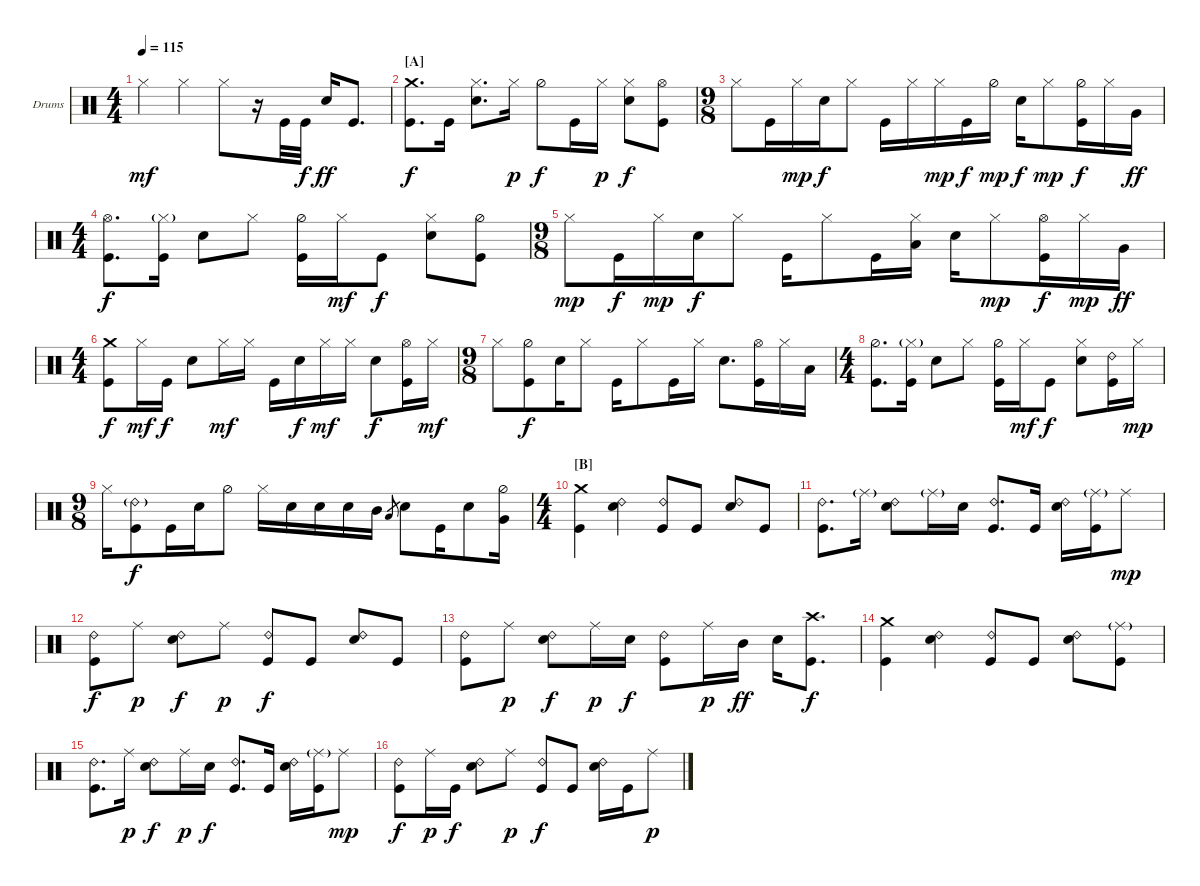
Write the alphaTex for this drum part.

\defaultSystemsLayout 4
\bracketExtendMode groupsimilarinstruments
\firstSystemTrackNameOrientation horizontal
\otherSystemsTrackNameOrientation horizontal
\track ("Batterie " "Drums") {instrument percussion}
\staff {score}
\articulation defaults
\ts (4 4)
\tempo 115
\clef neutral
\ks c "Hi-Hat (closed)".4{dy mf} "Hi-Hat (closed)".4 "Hi-Hat (closed)".8
r.16 "Kick (hit)".32 "Kick (hit)".32{dy f} "Snare (hit) 2".16{dy ff} "Kick (hit)".8{d} |
\section ("A" "")
("Kick (hit)" "Crash medium (hit)").8{d dy f} "Kick (hit)".16 ("Snare (hit) 2" "Hi-Hat (closed)").8{d} "Hi-Hat (closed)".16{dy p} "Hi-Hat (half)".8{dy f} "Kick (hit)".16 "Hi-Hat (closed)".16{dy p} ("Snare (hit) 2" "Hi-Hat (closed)").8{dy f} ("Kick (hit)" "Hi-Hat (open)").8 |
\ts (9 8)
"Hi-Hat (closed)".8 "Kick (hit)".16 "Hi-Hat (closed)".16{dy mp} "Snare (hit) 2".16{dy f} "Hi-Hat (closed)".8 "Kick (hit)".16 "Hi-Hat (closed)".16 "Hi-Hat (closed)".16{dy mp} "Kick (hit)".16{dy f} "Hi-Hat (half)".16{dy mp} "Snare (hit) 2".16{dy f} "Hi-Hat (closed)".8{dy mp} ("Kick (hit)" "Hi-Hat (half)").16{dy f} "Hi-Hat (closed)".16 "Very Low Tom (hit)".16{dy ff} |
\ts (4 4)
("Kick (hit)" "Hi-Hat (open)").8{d dy f} ("Kick (hit)" "Hi-Hat (closed)"{g}).16 "Snare (hit) 2".8 "Hi-Hat (closed)".8 ("Kick (hit)" "Hi-Hat (half)").16 "Hi-Hat (closed)".16{dy mf} "Kick (hit)".8{dy f} ("Snare (hit) 2" "Hi-Hat (closed)").8 ("Kick (hit)" "Hi-Hat (half)").8 |
\ts (9 8)
"Hi-Hat (closed)".8{dy mp} "Kick (hit)".16{dy f} "Hi-Hat (closed)".16{dy mp} "Snare (hit) 2".16{dy f} "Hi-Hat (closed)".8 "Kick (hit)".16 "Hi-Hat (closed)".8 "Kick (hit)".16 ("Low Tom (hit)" "Hi-Hat (closed)").16 "Snare (hit) 2".16 "Hi-Hat (closed)".8{dy mp} ("Kick (hit)" "Hi-Hat (open)").16{dy f} "Hi-Hat (closed)".16{dy mp} "Very Low Tom (hit)".16{dy ff} |
\ts (4 4)
("Kick (hit)" "Crash medium (hit)").8{dy f} "Hi-Hat (closed)".16{dy mf} "Kick (hit)".16{dy f} "Snare (hit) 2".8 "Hi-Hat (closed)".16{dy mf} "Hi-Hat (closed)".16 "Kick (hit)".16 "Snare (hit) 2".16{dy f} "Hi-Hat (closed)".16{dy mf} "Hi-Hat (closed)".16 "Snare (hit) 2".8{dy f} ("Kick (hit)" "Hi-Hat (open)").16 "Hi-Hat (closed)".16{dy mf} |
\ts (9 8)
"Hi-Hat (closed)".8 ("Kick (hit)" "Hi-Hat (half)").8{dy f} "Snare (hit) 2".16 "Hi-Hat (closed)".8 "Kick (hit)".16 "Hi-Hat (closed)".8 "Kick (hit)".16 "Hi-Hat (closed)".16 "Snare (hit) 2".8{d} ("Kick (hit)" "Hi-Hat (open)").16 "Hi-Hat (closed)".16 "Low Tom (hit)".16 |
\ts (4 4)
("Kick (hit)" "Hi-Hat (half)").8{d} ("Kick (hit)" "Hi-Hat (closed)"{g}).16 "Snare (hit) 2".8 "Hi-Hat (closed)".8 ("Kick (hit)" "Hi-Hat (half)").16 "Hi-Hat (closed)".16{dy mf} "Kick (hit)".8{dy f} ("Snare (hit) 2" "Hi-Hat (closed)").8 ("Kick (hit)" "Ride (bell) 2").16 "Hi-Hat (closed)".16{dy mp} |
\ts (9 8)
"Hi-Hat (closed)".16 ("Ride (bell) 2"{g} "Kick (hit)").8{dy f} "Kick (hit)".16 "Snare (hit) 2".16 "Hi-Hat (half)".8 "Hi-Hat (closed)".16 "Snare (hit) 2".16 "Snare (hit) 2".16 "Snare (hit) 2".16 "Mid Tom (hit)".16 "Low Tom (hit)".8{gr} "Snare (hit) 2".8 "Kick (hit)".16 "Snare (hit) 2".8 ("Very Low Tom (hit)" "Hi-Hat (half)").16 |
\ts (4 4)
\section ("B" "")
("Kick (hit)" "Crash medium (hit)").4 ("Snare (hit) 2" "Ride (bell) 2").4 ("Kick (hit)" "Ride (bell) 2").8 "Kick (hit)".8 ("Snare (hit) 2" "Ride (bell) 2").8 "Kick (hit)".8 |
("Kick (hit)" "Ride (bell) 2").8{d} "Ride (middle)"{g}.16 ("Snare (hit) 2" "Ride (bell) 2").8 "Ride (middle)"{g}.16 "Snare (hit) 2".16 ("Kick (hit)" "Ride (bell) 2").8{d} "Kick (hit)".16 ("Snare (hit) 2" "Ride (bell) 2").16 ("Kick (hit)" "Ride (middle)"{g}).16 "Ride (middle)".8{dy mp} |
("Kick (hit)" "Ride (bell) 2").8{dy f} "Ride (middle)".8{dy p} ("Snare (hit) 2" "Ride (bell) 2").8{dy f} "Ride (middle)".8{dy p} ("Kick (hit)" "Ride (bell) 2").8{dy f} "Kick (hit)".8 ("Snare (hit) 2" "Ride (bell) 2").8 "Kick (hit)".8 |
("Kick (hit)" "Ride (bell) 2").8 "Ride (middle)".8{dy p} ("Snare (hit) 2" "Ride (bell) 2").8{dy f} "Ride (middle)".16{dy p} "Snare (hit) 2".16{dy f} ("Kick (hit)" "Ride (bell) 2").8 "Ride (middle)".16{dy p} "Mid Tom (hit)".16{dy ff} "Snare (hit) 2".16 ("Kick (hit)" "Crash high (hit)").8{d dy f} |
("Kick (hit)" "Crash medium (hit)").4 ("Snare (hit) 2" "Ride (bell) 2").4 ("Kick (hit)" "Ride (bell) 2").8 "Kick (hit)".8 ("Snare (hit) 2" "Ride (bell) 2").8 ("Ride (middle)"{g} "Kick (hit)").8 |
("Kick (hit)" "Ride (bell) 2").8{d} "Ride (middle)".16{dy p} ("Snare (hit) 2" "Ride (bell) 2").8{dy f} "Ride (middle)".16{dy p} "Snare (hit) 2".16{dy f} ("Kick (hit)" "Ride (bell) 2").8{d} "Kick (hit)".16 ("Snare (hit) 2" "Ride (bell) 2").16 ("Kick (hit)" "Ride (middle)"{g}).16 "Ride (middle)".8{dy mp} |
("Kick (hit)" "Ride (bell) 2").8{dy f} "Ride (middle)".16{dy p} "Kick (hit)".16{dy f} ("Snare (hit) 2" "Ride (bell) 2").8 "Ride (middle)".8{dy p} ("Kick (hit)" "Ride (bell) 2").8{dy f} "Kick (hit)".8 ("Snare (hit) 2" "Ride (bell) 2").16 "Kick (hit)".16 "Ride (middle)".8{dy p}
